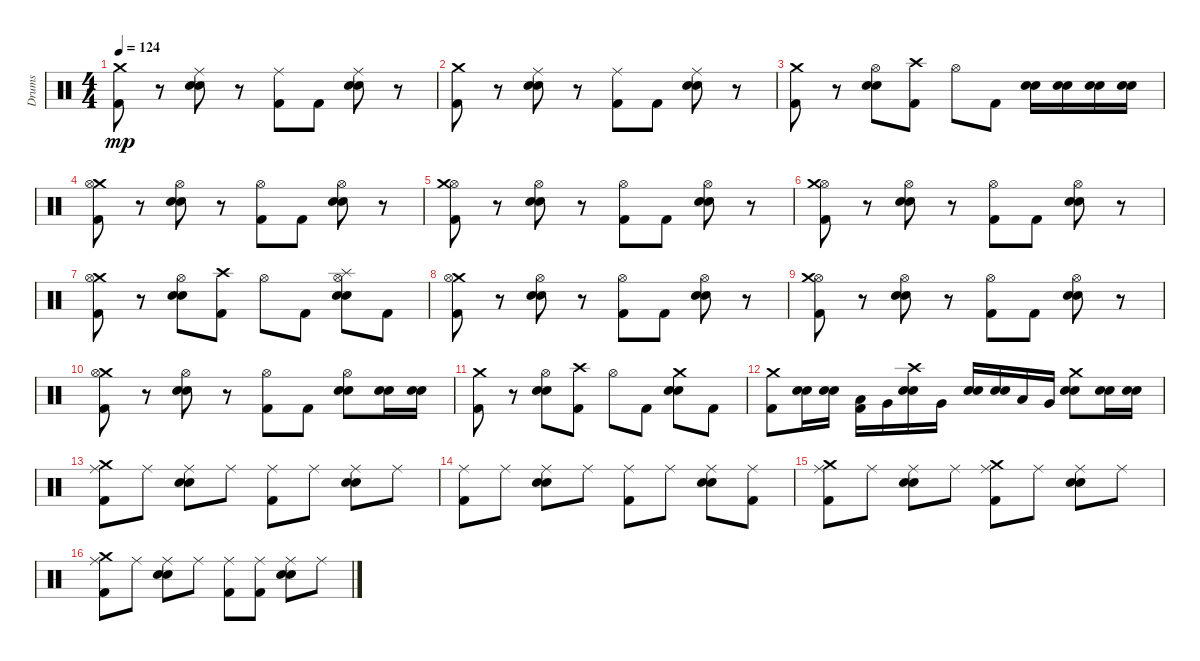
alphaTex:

\track ("Drums" "Drums") {instrument percussion}
\staff {score}
\articulation defaults
\ts (4 4)
\tempo 124
\clef neutral
\ks c
("Crash medium (hit)" "Kick (hit) 2").8{dy mp} r.8 ("Snare (hit) 2" "Electric Snare (hit)" "Ride (middle)").8 r.8 ("Kick (hit) 2" "Ride (middle)").8 "Kick (hit) 2".8 ("Electric Snare (hit)" "Snare (hit) 2" "Ride (middle)").8 r.8 |
("Kick (hit) 2" "Crash medium (hit)").8 r.8 ("Snare (hit) 2" "Ride (middle)" "Electric Snare (hit)").8 r.8 ("Kick (hit) 2" "Ride (middle)").8 "Kick (hit) 2".8 ("Snare (hit) 2" "Electric Snare (hit)" "Ride (middle)").8 r.8 |
("Kick (hit) 2" "Crash medium (hit)").8 r.8 ("Electric Snare (hit)" "Hi-Hat (open)" "Snare (hit) 2").8 ("Kick (hit) 2" "Crash high (hit)").8 "Hi-Hat (open)".8 "Kick (hit) 2".8 ("Snare (hit) 2" "Electric Snare (hit)").16 ("Snare (hit) 2" "Electric Snare (hit)").16 ("Electric Snare (hit)" "Snare (hit) 2").16 ("Snare (hit) 2" "Electric Snare (hit)").16 |
("Crash medium (hit)" "Kick (hit) 2" "Hi-Hat (open)").8 r.8 ("Snare (hit) 2" "Electric Snare (hit)" "Hi-Hat (open)").8 r.8 ("Kick (hit) 2" "Hi-Hat (open)").8 "Kick (hit) 2".8 ("Snare (hit) 2" "Hi-Hat (open)" "Electric Snare (hit)").8 r.8 |
("Hi-Hat (open)" "Crash medium (hit)" "Kick (hit) 2").8 r.8 ("Snare (hit) 2" "Electric Snare (hit)" "Hi-Hat (open)").8 r.8 ("Kick (hit) 2" "Hi-Hat (open)").8 "Kick (hit) 2".8 ("Electric Snare (hit)" "Hi-Hat (open)" "Snare (hit) 2").8 r.8 |
("Hi-Hat (open)" "Kick (hit) 2" "Crash medium (hit)").8 r.8 ("Electric Snare (hit)" "Hi-Hat (open)" "Snare (hit) 2").8 r.8 ("Hi-Hat (open)" "Kick (hit) 2").8 "Kick (hit) 2".8 ("Electric Snare (hit)" "Hi-Hat (open)" "Snare (hit) 2").8 r.8 |
("Kick (hit) 2" "Crash medium (hit)" "Hi-Hat (open)").8 r.8 ("Hi-Hat (open)" "Snare (hit) 2" "Electric Snare (hit)").8 ("Crash high (hit)" "Kick (hit) 2").8 "Hi-Hat (open)".8 "Kick (hit) 2".8 ("Splash (hit)" "Snare (hit) 2" "Electric Snare (hit)" "Hi-Hat (open)").8 "Kick (hit) 2".8 |
("Crash medium (hit)" "Kick (hit) 2" "Hi-Hat (open)").8 r.8 ("Snare (hit) 2" "Hi-Hat (open)" "Electric Snare (hit)").8 r.8 ("Hi-Hat (open)" "Kick (hit) 2").8 "Kick (hit) 2".8 ("Hi-Hat (open)" "Electric Snare (hit)" "Snare (hit) 2").8 r.8 |
("Hi-Hat (open)" "Kick (hit) 2" "Crash medium (hit)").8 r.8 ("Snare (hit) 2" "Hi-Hat (open)" "Electric Snare (hit)").8 r.8 ("Hi-Hat (open)" "Kick (hit) 2").8 "Kick (hit) 2".8 ("Electric Snare (hit)" "Snare (hit) 2" "Hi-Hat (open)").8 r.8 |
("Crash medium (hit)" "Kick (hit) 2" "Hi-Hat (open)").8 r.8 ("Electric Snare (hit)" "Snare (hit) 2" "Hi-Hat (open)").8 r.8 ("Hi-Hat (open)" "Kick (hit) 2").8 "Kick (hit) 2".8 ("Hi-Hat (open)" "Snare (hit) 2" "Electric Snare (hit)").8 ("Snare (hit) 2" "Electric Snare (hit)").16 ("Snare (hit) 2" "Electric Snare (hit)").16 |
("Crash medium (hit)" "Kick (hit) 2").8 r.8 ("Snare (hit) 2" "Electric Snare (hit)" "Hi-Hat (open)").8 ("Kick (hit) 2" "Crash high (hit)").8 "Hi-Hat (open)".8 "Kick (hit) 2".8 ("Crash medium (hit)" "Electric Snare (hit)" "Snare (hit) 2").8 "Kick (hit) 2".8 |
("Kick (hit) 2" "Crash medium (hit)").8 ("Electric Snare (hit)" "Snare (hit) 2").16 ("Snare (hit) 2" "Electric Snare (hit)").16 ("Kick (hit) 2" "Low Tom (hit)").16 "Very Low Tom (hit)".16 ("Crash high (hit)" "Electric Snare (hit)" "Snare (hit) 2").16 "Very Low Tom (hit)".16 ("Snare (hit) 2" "Electric Snare (hit)").16 ("Snare (hit) 2" "Electric Snare (hit)").16 "Low Tom (hit)".16 "Very Low Tom (hit)".16 ("Electric Snare (hit)" "Snare (hit) 2" "Crash medium (hit)").8 ("Snare (hit) 2" "Electric Snare (hit)").16 ("Snare (hit) 2" "Electric Snare (hit)").16 |
("Kick (hit) 2" "Ride (middle)" "Crash medium (hit)").8 "Ride (middle)".8 ("Snare (hit) 2" "Ride (middle)" "Electric Snare (hit)").8 "Ride (middle)".8 ("Ride (middle)" "Kick (hit) 2").8 "Ride (middle)".8 ("Snare (hit) 2" "Electric Snare (hit)" "Ride (middle)").8 "Ride (middle)".8 |
("Ride (middle)" "Kick (hit) 2").8 "Ride (middle)".8 ("Electric Snare (hit)" "Ride (middle)" "Snare (hit) 2").8 "Ride (middle)".8 ("Ride (middle)" "Kick (hit) 2").8 "Ride (middle)".8 ("Ride (middle)" "Snare (hit) 2" "Electric Snare (hit)").8 ("Ride (middle)" "Kick (hit) 2").8 |
("Crash medium (hit)" "Ride (middle)" "Kick (hit) 2").8 "Ride (middle)".8 ("Snare (hit) 2" "Electric Snare (hit)" "Ride (middle)").8 "Ride (middle)".8 ("Ride (middle)" "Crash medium (hit)" "Kick (hit) 2").8 "Ride (middle)".8 ("Snare (hit) 2" "Ride (middle)" "Electric Snare (hit)").8 "Ride (middle)".8 |
("Crash medium (hit)" "Ride (middle)" "Kick (hit) 2").8 "Ride (middle)".8 ("Electric Snare (hit)" "Ride (middle)" "Snare (hit) 2").8 "Ride (middle)".8 ("Kick (hit) 2" "Ride (middle)").8 ("Kick (hit) 2" "Ride (middle)").8 ("Snare (hit) 2" "Electric Snare (hit)" "Ride (middle)").8 "Ride (middle)".8
